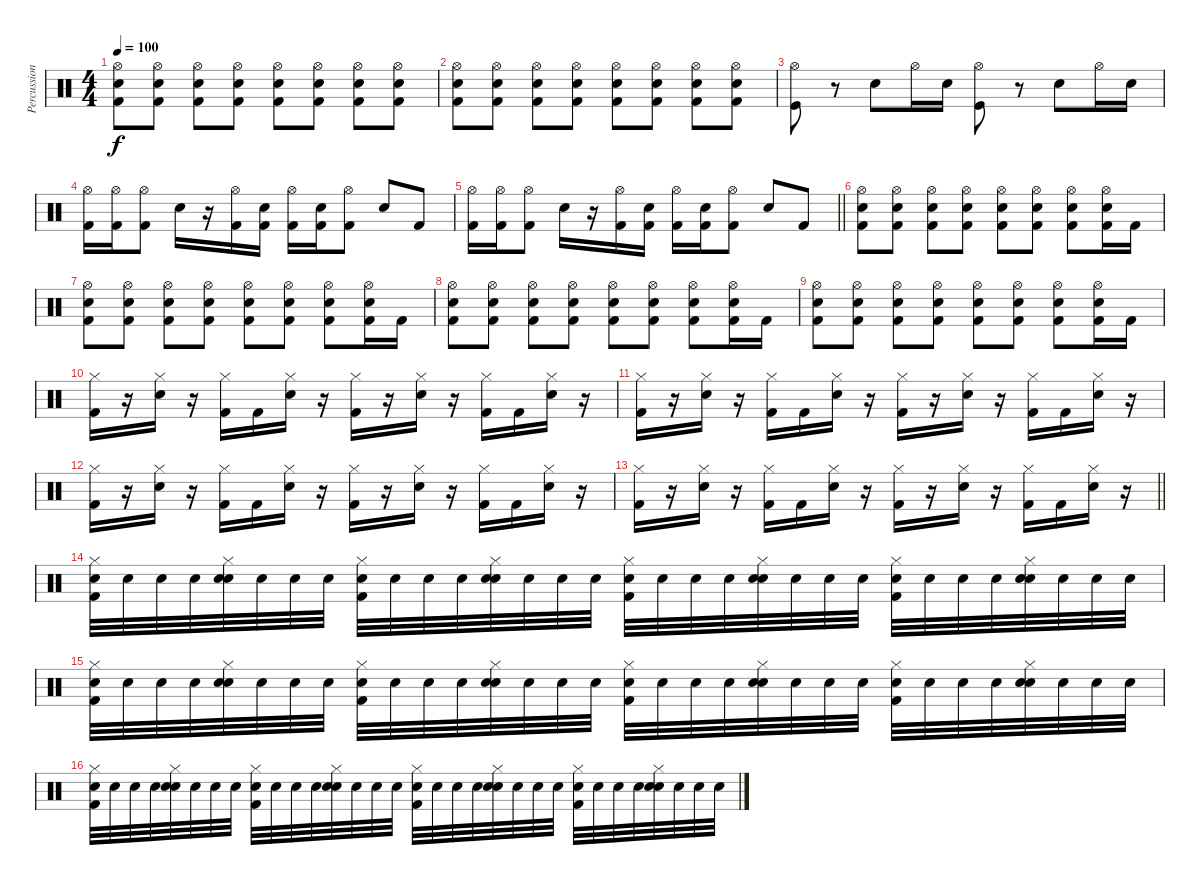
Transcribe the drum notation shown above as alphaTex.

\track ("Percussions" "Percussion") {instrument percussion}
\staff {score}
\articulation defaults
\ts (4 4)
\tempo 100
\clef neutral
\ks c
("Hi-Hat (open)" "Electric Snare (hit)" "Kick (hit) 2").8{dy f} ("Hi-Hat (open)" "Electric Snare (hit)" "Kick (hit) 2").8 ("Hi-Hat (open)" "Electric Snare (hit)" "Kick (hit) 2").8 ("Hi-Hat (open)" "Electric Snare (hit)" "Kick (hit) 2").8 ("Hi-Hat (open)" "Electric Snare (hit)" "Kick (hit) 2").8 ("Hi-Hat (open)" "Electric Snare (hit)" "Kick (hit) 2").8 ("Hi-Hat (open)" "Electric Snare (hit)" "Kick (hit) 2").8 ("Hi-Hat (open)" "Electric Snare (hit)" "Kick (hit) 2").8 |
("Hi-Hat (open)" "Electric Snare (hit)" "Kick (hit) 2").8 ("Hi-Hat (open)" "Electric Snare (hit)" "Kick (hit) 2").8 ("Hi-Hat (open)" "Electric Snare (hit)" "Kick (hit) 2").8 ("Hi-Hat (open)" "Electric Snare (hit)" "Kick (hit) 2").8 ("Hi-Hat (open)" "Electric Snare (hit)" "Kick (hit) 2").8 ("Hi-Hat (open)" "Electric Snare (hit)" "Kick (hit) 2").8 ("Hi-Hat (open)" "Electric Snare (hit)" "Kick (hit) 2").8 ("Hi-Hat (open)" "Electric Snare (hit)" "Kick (hit) 2").8 |
("Hi-Hat (open)" "Kick (hit)").8 r.8 "Electric Snare (hit)".8 "Hi-Hat (open)".16 "Electric Snare (hit)".16 ("Hi-Hat (open)" "Kick (hit)").8 r.8 "Electric Snare (hit)".8 "Hi-Hat (open)".16 "Electric Snare (hit)".16 |
("Hi-Hat (open)" "Kick (hit) 2").16 ("Hi-Hat (open)" "Kick (hit) 2").16 ("Hi-Hat (open)" "Kick (hit) 2").8 "Electric Snare (hit)".16 r.16 ("Hi-Hat (open)" "Kick (hit) 2").16 ("Electric Snare (hit)" "Kick (hit) 2").16 ("Hi-Hat (open)" "Kick (hit) 2").16 ("Electric Snare (hit)" "Kick (hit) 2").16 ("Hi-Hat (open)" "Kick (hit) 2").8 "Electric Snare (hit)".8 "Kick (hit) 2".8 |
\barLineRight lightlight
("Hi-Hat (open)" "Kick (hit) 2").16 ("Hi-Hat (open)" "Kick (hit) 2").16 ("Hi-Hat (open)" "Kick (hit) 2").8 "Electric Snare (hit)".16 r.16 ("Hi-Hat (open)" "Kick (hit) 2").16 ("Electric Snare (hit)" "Kick (hit) 2").16 ("Hi-Hat (open)" "Kick (hit) 2").16 ("Electric Snare (hit)" "Kick (hit) 2").16 ("Hi-Hat (open)" "Kick (hit) 2").8 "Electric Snare (hit)".8 "Kick (hit) 2".8 |
("Hi-Hat (open)" "Electric Snare (hit)" "Kick (hit) 2").8 ("Hi-Hat (open)" "Electric Snare (hit)" "Kick (hit) 2").8 ("Hi-Hat (open)" "Electric Snare (hit)" "Kick (hit) 2").8 ("Hi-Hat (open)" "Electric Snare (hit)" "Kick (hit) 2").8 ("Hi-Hat (open)" "Electric Snare (hit)" "Kick (hit) 2").8 ("Hi-Hat (open)" "Electric Snare (hit)" "Kick (hit) 2").8 ("Hi-Hat (open)" "Electric Snare (hit)" "Kick (hit) 2").8 ("Hi-Hat (open)" "Electric Snare (hit)" "Kick (hit) 2").16 "Kick (hit) 2".16 |
("Hi-Hat (open)" "Electric Snare (hit)" "Kick (hit) 2").8 ("Hi-Hat (open)" "Electric Snare (hit)" "Kick (hit) 2").8 ("Hi-Hat (open)" "Electric Snare (hit)" "Kick (hit) 2").8 ("Hi-Hat (open)" "Electric Snare (hit)" "Kick (hit) 2").8 ("Hi-Hat (open)" "Electric Snare (hit)" "Kick (hit) 2").8 ("Hi-Hat (open)" "Electric Snare (hit)" "Kick (hit) 2").8 ("Hi-Hat (open)" "Electric Snare (hit)" "Kick (hit) 2").8 ("Hi-Hat (open)" "Electric Snare (hit)" "Kick (hit) 2").16 "Kick (hit) 2".16 |
("Hi-Hat (open)" "Electric Snare (hit)" "Kick (hit) 2").8 ("Hi-Hat (open)" "Electric Snare (hit)" "Kick (hit) 2").8 ("Hi-Hat (open)" "Electric Snare (hit)" "Kick (hit) 2").8 ("Hi-Hat (open)" "Electric Snare (hit)" "Kick (hit) 2").8 ("Hi-Hat (open)" "Electric Snare (hit)" "Kick (hit) 2").8 ("Hi-Hat (open)" "Electric Snare (hit)" "Kick (hit) 2").8 ("Hi-Hat (open)" "Electric Snare (hit)" "Kick (hit) 2").8 ("Hi-Hat (open)" "Electric Snare (hit)" "Kick (hit) 2").16 "Kick (hit) 2".16 |
("Hi-Hat (open)" "Electric Snare (hit)" "Kick (hit) 2").8 ("Hi-Hat (open)" "Electric Snare (hit)" "Kick (hit) 2").8 ("Hi-Hat (open)" "Electric Snare (hit)" "Kick (hit) 2").8 ("Hi-Hat (open)" "Electric Snare (hit)" "Kick (hit) 2").8 ("Hi-Hat (open)" "Electric Snare (hit)" "Kick (hit) 2").8 ("Hi-Hat (open)" "Electric Snare (hit)" "Kick (hit) 2").8 ("Hi-Hat (open)" "Electric Snare (hit)" "Kick (hit) 2").8 ("Hi-Hat (open)" "Electric Snare (hit)" "Kick (hit) 2").16 "Kick (hit) 2".16 |
("Hi-Hat (closed)" "Kick (hit) 2").16 r.16 ("Hi-Hat (closed)" "Electric Snare (hit)").16 r.16 ("Hi-Hat (closed)" "Kick (hit) 2").16 "Kick (hit) 2".16 ("Hi-Hat (closed)" "Electric Snare (hit)").16 r.16 ("Hi-Hat (closed)" "Kick (hit) 2").16 r.16 ("Hi-Hat (closed)" "Electric Snare (hit)").16 r.16 ("Hi-Hat (closed)" "Kick (hit) 2").16 "Kick (hit) 2".16 ("Hi-Hat (closed)" "Electric Snare (hit)").16 r.16 |
("Hi-Hat (closed)" "Kick (hit) 2").16 r.16 ("Hi-Hat (closed)" "Electric Snare (hit)").16 r.16 ("Hi-Hat (closed)" "Kick (hit) 2").16 "Kick (hit) 2".16 ("Hi-Hat (closed)" "Electric Snare (hit)").16 r.16 ("Hi-Hat (closed)" "Kick (hit) 2").16 r.16 ("Hi-Hat (closed)" "Electric Snare (hit)").16 r.16 ("Hi-Hat (closed)" "Kick (hit) 2").16 "Kick (hit) 2".16 ("Hi-Hat (closed)" "Electric Snare (hit)").16 r.16 |
("Hi-Hat (closed)" "Kick (hit) 2").16 r.16 ("Hi-Hat (closed)" "Electric Snare (hit)").16 r.16 ("Hi-Hat (closed)" "Kick (hit) 2").16 "Kick (hit) 2".16 ("Hi-Hat (closed)" "Electric Snare (hit)").16 r.16 ("Hi-Hat (closed)" "Kick (hit) 2").16 r.16 ("Hi-Hat (closed)" "Electric Snare (hit)").16 r.16 ("Hi-Hat (closed)" "Kick (hit) 2").16 "Kick (hit) 2".16 ("Hi-Hat (closed)" "Electric Snare (hit)").16 r.16 |
\barLineRight lightlight
("Hi-Hat (closed)" "Kick (hit) 2").16 r.16 ("Hi-Hat (closed)" "Electric Snare (hit)").16 r.16 ("Hi-Hat (closed)" "Kick (hit) 2").16 "Kick (hit) 2".16 ("Hi-Hat (closed)" "Electric Snare (hit)").16 r.16 ("Hi-Hat (closed)" "Kick (hit) 2").16 r.16 ("Hi-Hat (closed)" "Electric Snare (hit)").16 r.16 ("Hi-Hat (closed)" "Kick (hit) 2").16 "Kick (hit) 2".16 ("Hi-Hat (closed)" "Electric Snare (hit)").16 r.16 |
("Hi-Hat (closed)" "Electric Snare (hit)" "Kick (hit) 2").32 "Electric Snare (hit)".32 "Electric Snare (hit)".32 "Electric Snare (hit)".32 ("Snare (hit) 2" "Hi-Hat (closed)" "Electric Snare (hit)").32 "Electric Snare (hit)".32 "Electric Snare (hit)".32 "Electric Snare (hit)".32 ("Hi-Hat (closed)" "Electric Snare (hit)" "Kick (hit) 2").32 "Electric Snare (hit)".32 "Electric Snare (hit)".32 "Electric Snare (hit)".32 ("Snare (hit) 2" "Hi-Hat (closed)" "Electric Snare (hit)").32 "Electric Snare (hit)".32 "Electric Snare (hit)".32 "Electric Snare (hit)".32 ("Hi-Hat (closed)" "Electric Snare (hit)" "Kick (hit) 2").32 "Electric Snare (hit)".32 "Electric Snare (hit)".32 "Electric Snare (hit)".32 ("Snare (hit) 2" "Hi-Hat (closed)" "Electric Snare (hit)").32 "Electric Snare (hit)".32 "Electric Snare (hit)".32 "Electric Snare (hit)".32 ("Hi-Hat (closed)" "Electric Snare (hit)" "Kick (hit) 2").32 "Electric Snare (hit)".32 "Electric Snare (hit)".32 "Electric Snare (hit)".32 ("Snare (hit) 2" "Hi-Hat (closed)" "Electric Snare (hit)").32 "Electric Snare (hit)".32 "Electric Snare (hit)".32 "Electric Snare (hit)".32 |
("Hi-Hat (closed)" "Electric Snare (hit)" "Kick (hit) 2").32 "Electric Snare (hit)".32 "Electric Snare (hit)".32 "Electric Snare (hit)".32 ("Snare (hit) 2" "Hi-Hat (closed)" "Electric Snare (hit)").32 "Electric Snare (hit)".32 "Electric Snare (hit)".32 "Electric Snare (hit)".32 ("Hi-Hat (closed)" "Electric Snare (hit)" "Kick (hit) 2").32 "Electric Snare (hit)".32 "Electric Snare (hit)".32 "Electric Snare (hit)".32 ("Snare (hit) 2" "Hi-Hat (closed)" "Electric Snare (hit)").32 "Electric Snare (hit)".32 "Electric Snare (hit)".32 "Electric Snare (hit)".32 ("Hi-Hat (closed)" "Electric Snare (hit)" "Kick (hit) 2").32 "Electric Snare (hit)".32 "Electric Snare (hit)".32 "Electric Snare (hit)".32 ("Snare (hit) 2" "Hi-Hat (closed)" "Electric Snare (hit)").32 "Electric Snare (hit)".32 "Electric Snare (hit)".32 "Electric Snare (hit)".32 ("Hi-Hat (closed)" "Electric Snare (hit)" "Kick (hit) 2").32 "Electric Snare (hit)".32 "Electric Snare (hit)".32 "Electric Snare (hit)".32 ("Snare (hit) 2" "Hi-Hat (closed)" "Electric Snare (hit)").32 "Electric Snare (hit)".32 "Electric Snare (hit)".32 "Electric Snare (hit)".32 |
("Hi-Hat (closed)" "Electric Snare (hit)" "Kick (hit) 2").32 "Electric Snare (hit)".32 "Electric Snare (hit)".32 "Electric Snare (hit)".32 ("Snare (hit) 2" "Hi-Hat (closed)" "Electric Snare (hit)").32 "Electric Snare (hit)".32 "Electric Snare (hit)".32 "Electric Snare (hit)".32 ("Hi-Hat (closed)" "Electric Snare (hit)" "Kick (hit) 2").32 "Electric Snare (hit)".32 "Electric Snare (hit)".32 "Electric Snare (hit)".32 ("Snare (hit) 2" "Hi-Hat (closed)" "Electric Snare (hit)").32 "Electric Snare (hit)".32 "Electric Snare (hit)".32 "Electric Snare (hit)".32 ("Hi-Hat (closed)" "Electric Snare (hit)" "Kick (hit) 2").32 "Electric Snare (hit)".32 "Electric Snare (hit)".32 "Electric Snare (hit)".32 ("Snare (hit) 2" "Hi-Hat (closed)" "Electric Snare (hit)").32 "Electric Snare (hit)".32 "Electric Snare (hit)".32 "Electric Snare (hit)".32 ("Hi-Hat (closed)" "Electric Snare (hit)" "Kick (hit) 2").32 "Electric Snare (hit)".32 "Electric Snare (hit)".32 "Electric Snare (hit)".32 ("Snare (hit) 2" "Hi-Hat (closed)" "Electric Snare (hit)").32 "Electric Snare (hit)".32 "Electric Snare (hit)".32 "Electric Snare (hit)".32
